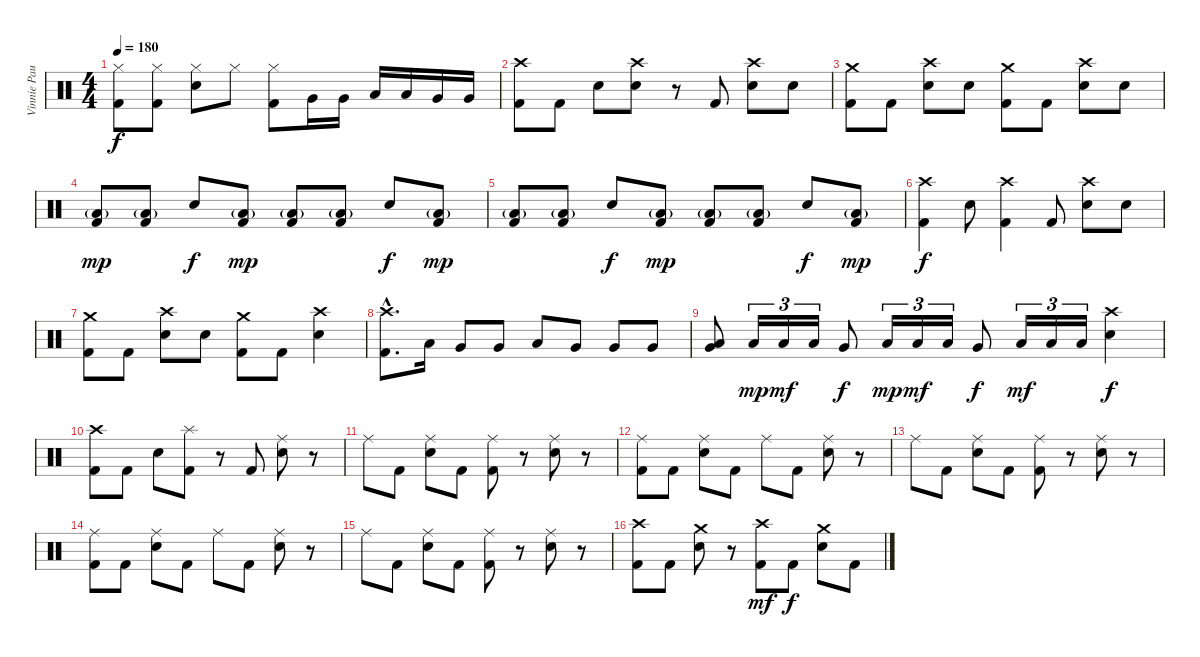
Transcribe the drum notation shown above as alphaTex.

\track ("Vinnie Paul" "Vinnie Pau") {instrument percussion}
\staff {score}
\articulation defaults
\ts (4 4)
\tempo 180
\clef neutral
\ks c
("Hi-Hat (closed)" "Kick (hit) 2").8{dy f} ("Hi-Hat (closed)" "Kick (hit) 2").8 ("Hi-Hat (closed)" "Electric Snare (hit)").8 "Hi-Hat (closed)".8 ("Hi-Hat (closed)" "Kick (hit) 2").8 "Very Low Tom (hit)".16 "Very Low Tom (hit)".16 "Low Floor Tom (hit)".16 "Low Floor Tom (hit)".16 "Very Low Tom (hit)".16 "Very Low Tom (hit)".16 |
("Crash high (hit)" "Kick (hit) 2").8 "Kick (hit) 2".8 "Electric Snare (hit)".8 ("Crash high (hit)" "Electric Snare (hit)").8 r.8 "Kick (hit) 2".8 ("Crash high (hit)" "Electric Snare (hit)").8 "Electric Snare (hit)".8 |
("Crash medium (hit)" "Kick (hit) 2").8 "Kick (hit) 2".8 ("Crash high (hit)" "Electric Snare (hit)").8 "Electric Snare (hit)".8 ("Crash medium (hit)" "Kick (hit) 2").8 "Kick (hit) 2".8 ("Crash high (hit)" "Electric Snare (hit)").8 "Electric Snare (hit)".8 |
("Low Floor Tom (hit)"{g} "Kick (hit) 2").8{dy mp} ("Low Floor Tom (hit)"{g} "Kick (hit) 2").8 "Electric Snare (hit)".8{dy f} ("Low Floor Tom (hit)"{g} "Kick (hit) 2").8{dy mp} ("Low Floor Tom (hit)"{g} "Kick (hit) 2").8 ("Low Floor Tom (hit)"{g} "Kick (hit) 2").8 "Electric Snare (hit)".8{dy f} ("Low Floor Tom (hit)"{g} "Kick (hit) 2").8{dy mp} |
("Low Floor Tom (hit)"{g} "Kick (hit) 2").8 ("Low Floor Tom (hit)"{g} "Kick (hit) 2").8 "Electric Snare (hit)".8{dy f} ("Low Floor Tom (hit)"{g} "Kick (hit) 2").8{dy mp} ("Low Floor Tom (hit)"{g} "Kick (hit) 2").8 ("Low Floor Tom (hit)"{g} "Kick (hit) 2").8 "Electric Snare (hit)".8{dy f} ("Low Floor Tom (hit)"{g} "Kick (hit) 2").8{dy mp} |
("Crash high (hit)" "Kick (hit) 2").4{dy f} "Electric Snare (hit)".8 ("Crash high (hit)" "Kick (hit) 2").4 "Kick (hit) 2".8 ("Crash high (hit)" "Electric Snare (hit)").8 "Electric Snare (hit)".8 |
("Crash medium (hit)" "Kick (hit) 2").8 "Kick (hit) 2".8 ("Crash high (hit)" "Electric Snare (hit)").8 "Electric Snare (hit)".8 ("Crash medium (hit)" "Kick (hit) 2").8 "Kick (hit) 2".8 ("Crash high (hit)" "Electric Snare (hit)").4 |
("Crash high (hit)"{hac} "Kick (hit) 2"{hac}).8{d} "Low Tom (hit)".16 "Very Low Tom (hit)".8 "Very Low Tom (hit)".8 "Low Floor Tom (hit)".8 "Very Low Tom (hit)".8 "Very Low Tom (hit)".8 "Very Low Tom (hit)".8 |
("Low Floor Tom (hit)" "Very Low Tom (hit)").8 "Low Floor Tom (hit)".16{tu (3 2) dy mp} "Low Floor Tom (hit)".16{tu (3 2) dy mf} "Low Floor Tom (hit)".16{tu (3 2)} "Very Low Tom (hit)".8{dy f} "Low Floor Tom (hit)".16{tu (3 2) dy mp} "Low Floor Tom (hit)".16{tu (3 2) dy mf} "Low Floor Tom (hit)".16{tu (3 2)} "Very Low Tom (hit)".8{dy f} "Low Floor Tom (hit)".16{tu (3 2) dy mf} "Low Floor Tom (hit)".16{tu (3 2)} "Low Floor Tom (hit)".16{tu (3 2)} ("Crash high (hit)" "Electric Snare (hit)").4{dy f} |
("Crash high (hit)" "Kick (hit) 2").8 "Kick (hit) 2".8 "Electric Snare (hit)".8 ("Splash (hit)" "Kick (hit) 2").8 r.8 "Kick (hit) 2".8 ("Ride (middle)" "Electric Snare (hit)").8 r.8 |
"Ride (middle)".8 "Kick (hit) 2".8 ("Ride (middle)" "Electric Snare (hit)").8 "Kick (hit) 2".8 ("Ride (middle)" "Kick (hit) 2").8 r.8 ("Ride (middle)" "Electric Snare (hit)").8 r.8 |
("Ride (middle)" "Kick (hit) 2").8 "Kick (hit) 2".8 ("Ride (middle)" "Electric Snare (hit)").8 "Kick (hit) 2".8 "Ride (middle)".8 "Kick (hit) 2".8 ("Ride (middle)" "Electric Snare (hit)").8 r.8 |
"Ride (middle)".8 "Kick (hit) 2".8 ("Ride (middle)" "Electric Snare (hit)").8 "Kick (hit) 2".8 ("Ride (middle)" "Kick (hit) 2").8 r.8 ("Ride (middle)" "Electric Snare (hit)").8 r.8 |
("Ride (middle)" "Kick (hit) 2").8 "Kick (hit) 2".8 ("Ride (middle)" "Electric Snare (hit)").8 "Kick (hit) 2".8 "Ride (middle)".8 "Kick (hit) 2".8 ("Ride (middle)" "Electric Snare (hit)").8 r.8 |
"Ride (middle)".8 "Kick (hit) 2".8 ("Ride (middle)" "Electric Snare (hit)").8 "Kick (hit) 2".8 ("Ride (middle)" "Kick (hit) 2").8 r.8 ("Ride (middle)" "Electric Snare (hit)").8 r.8 |
("Crash high (hit)" "Kick (hit) 2").8 "Kick (hit) 2".8 ("Crash medium (hit)" "Electric Snare (hit)").8 r.8 ("Crash high (hit)" "Kick (hit) 2").8{dy mf} "Kick (hit) 2".8{dy f} ("Crash medium (hit)" "Electric Snare (hit)").8 "Kick (hit) 2".8
